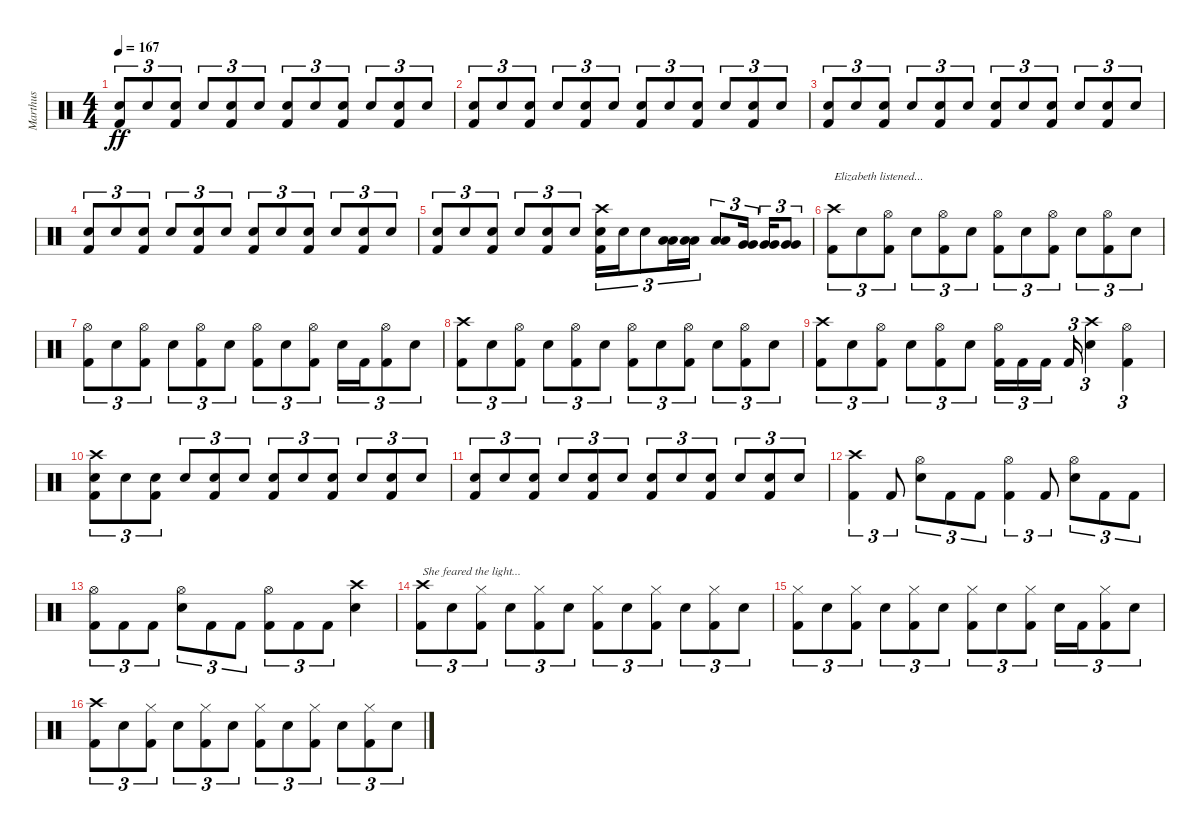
\track ("Marthus" "Marthus") {instrument percussion}
\staff {score}
\articulation defaults
\ts (4 4)
\tempo 167
\clef neutral
\ks c
("Electric Snare (hit)" "Kick (hit) 2").8{tu (3 2) dy ff} "Electric Snare (hit)".8{tu (3 2)} ("Electric Snare (hit)" "Kick (hit) 2").8{tu (3 2)} "Electric Snare (hit)".8{tu (3 2)} ("Electric Snare (hit)" "Kick (hit) 2").8{tu (3 2)} "Electric Snare (hit)".8{tu (3 2)} ("Electric Snare (hit)" "Kick (hit) 2").8{tu (3 2)} "Electric Snare (hit)".8{tu (3 2)} ("Electric Snare (hit)" "Kick (hit) 2").8{tu (3 2)} "Electric Snare (hit)".8{tu (3 2)} ("Electric Snare (hit)" "Kick (hit) 2").8{tu (3 2)} "Electric Snare (hit)".8{tu (3 2)} |
("Electric Snare (hit)" "Kick (hit) 2").8{tu (3 2)} "Electric Snare (hit)".8{tu (3 2)} ("Electric Snare (hit)" "Kick (hit) 2").8{tu (3 2)} "Electric Snare (hit)".8{tu (3 2)} ("Electric Snare (hit)" "Kick (hit) 2").8{tu (3 2)} "Electric Snare (hit)".8{tu (3 2)} ("Electric Snare (hit)" "Kick (hit) 2").8{tu (3 2)} "Electric Snare (hit)".8{tu (3 2)} ("Electric Snare (hit)" "Kick (hit) 2").8{tu (3 2)} "Electric Snare (hit)".8{tu (3 2)} ("Electric Snare (hit)" "Kick (hit) 2").8{tu (3 2)} "Electric Snare (hit)".8{tu (3 2)} |
("Electric Snare (hit)" "Kick (hit) 2").8{tu (3 2)} "Electric Snare (hit)".8{tu (3 2)} ("Electric Snare (hit)" "Kick (hit) 2").8{tu (3 2)} "Electric Snare (hit)".8{tu (3 2)} ("Electric Snare (hit)" "Kick (hit) 2").8{tu (3 2)} "Electric Snare (hit)".8{tu (3 2)} ("Electric Snare (hit)" "Kick (hit) 2").8{tu (3 2)} "Electric Snare (hit)".8{tu (3 2)} ("Electric Snare (hit)" "Kick (hit) 2").8{tu (3 2)} "Electric Snare (hit)".8{tu (3 2)} ("Electric Snare (hit)" "Kick (hit) 2").8{tu (3 2)} "Electric Snare (hit)".8{tu (3 2)} |
("Electric Snare (hit)" "Kick (hit) 2").8{tu (3 2)} "Electric Snare (hit)".8{tu (3 2)} ("Electric Snare (hit)" "Kick (hit) 2").8{tu (3 2)} "Electric Snare (hit)".8{tu (3 2)} ("Electric Snare (hit)" "Kick (hit) 2").8{tu (3 2)} "Electric Snare (hit)".8{tu (3 2)} ("Electric Snare (hit)" "Kick (hit) 2").8{tu (3 2)} "Electric Snare (hit)".8{tu (3 2)} ("Electric Snare (hit)" "Kick (hit) 2").8{tu (3 2)} "Electric Snare (hit)".8{tu (3 2)} ("Electric Snare (hit)" "Kick (hit) 2").8{tu (3 2)} "Electric Snare (hit)".8{tu (3 2)} |
("Electric Snare (hit)" "Kick (hit) 2").8{tu (3 2)} "Electric Snare (hit)".8{tu (3 2)} ("Electric Snare (hit)" "Kick (hit) 2").8{tu (3 2)} "Electric Snare (hit)".8{tu (3 2)} ("Electric Snare (hit)" "Kick (hit) 2").8{tu (3 2)} "Electric Snare (hit)".8{tu (3 2)} ("Crash high (hit)" "Electric Snare (hit)" "Kick (hit) 2").16{tu (3 2)} "Electric Snare (hit)".16{tu (3 2)} "Electric Snare (hit)".8{tu (3 2)} ("Low Tom (hit)" "Low Tom (hit)").16{tu (3 2)} ("Low Tom (hit)" "Low Tom (hit)").16{tu (3 2)} ("Low Tom (hit)" "Low Tom (hit)").8{tu (3 2)} ("Very Low Tom (hit)" "Very Low Tom (hit)").16{tu (3 2) beam splitsecondary} ("Very Low Tom (hit)" "Very Low Tom (hit)").16{tu (3 2)} ("Very Low Tom (hit)" "Very Low Tom (hit)").8{tu (3 2)} |
("Crash high (hit)" "Kick (hit) 2").8{tu (3 2) txt "Elizabeth listened..."} "Electric Snare (hit)".8{tu (3 2)} ("Hi-Hat (open)" "Kick (hit) 2").8{tu (3 2)} "Electric Snare (hit)".8{tu (3 2)} ("Hi-Hat (open)" "Kick (hit) 2").8{tu (3 2)} "Electric Snare (hit)".8{tu (3 2)} ("Hi-Hat (open)" "Kick (hit) 2").8{tu (3 2)} "Electric Snare (hit)".8{tu (3 2)} ("Hi-Hat (open)" "Kick (hit) 2").8{tu (3 2)} "Electric Snare (hit)".8{tu (3 2)} ("Hi-Hat (open)" "Kick (hit) 2").8{tu (3 2)} "Electric Snare (hit)".8{tu (3 2)} |
("Hi-Hat (open)" "Kick (hit) 2").8{tu (3 2)} "Electric Snare (hit)".8{tu (3 2)} ("Hi-Hat (open)" "Kick (hit) 2").8{tu (3 2)} "Electric Snare (hit)".8{tu (3 2)} ("Hi-Hat (open)" "Kick (hit) 2").8{tu (3 2)} "Electric Snare (hit)".8{tu (3 2)} ("Hi-Hat (open)" "Kick (hit) 2").8{tu (3 2)} "Electric Snare (hit)".8{tu (3 2)} ("Hi-Hat (open)" "Kick (hit) 2").8{tu (3 2)} "Electric Snare (hit)".16{tu (3 2)} "Kick (hit) 2".16{tu (3 2)} ("Hi-Hat (open)" "Kick (hit) 2").8{tu (3 2)} "Electric Snare (hit)".8{tu (3 2)} |
("Crash high (hit)" "Kick (hit) 2").8{tu (3 2)} "Electric Snare (hit)".8{tu (3 2)} ("Hi-Hat (open)" "Kick (hit) 2").8{tu (3 2)} "Electric Snare (hit)".8{tu (3 2)} ("Hi-Hat (open)" "Kick (hit) 2").8{tu (3 2)} "Electric Snare (hit)".8{tu (3 2)} ("Hi-Hat (open)" "Kick (hit) 2").8{tu (3 2)} "Electric Snare (hit)".8{tu (3 2)} ("Hi-Hat (open)" "Kick (hit) 2").8{tu (3 2)} "Electric Snare (hit)".8{tu (3 2)} ("Hi-Hat (open)" "Kick (hit) 2").8{tu (3 2)} "Electric Snare (hit)".8{tu (3 2)} |
("Crash high (hit)" "Kick (hit) 2").8{tu (3 2)} "Electric Snare (hit)".8{tu (3 2)} ("Hi-Hat (open)" "Kick (hit) 2").8{tu (3 2)} "Electric Snare (hit)".8{tu (3 2)} ("Hi-Hat (open)" "Kick (hit) 2").8{tu (3 2)} "Electric Snare (hit)".8{tu (3 2)} ("Hi-Hat (open)" "Kick (hit) 2").16{tu (3 2)} "Kick (hit) 2".16{tu (3 2)} "Kick (hit) 2".16{tu (3 2) beam splitsecondary} "Kick (hit) 2".16{tu (3 2)} ("Crash high (hit)" "Electric Snare (hit)").4{tu (3 2)} ("Hi-Hat (open)" "Kick (hit) 2").4{tu (3 2)} |
("Crash high (hit)" "Electric Snare (hit)" "Kick (hit) 2").8{tu (3 2)} "Electric Snare (hit)".8{tu (3 2)} ("Electric Snare (hit)" "Kick (hit) 2").8{tu (3 2)} "Electric Snare (hit)".8{tu (3 2)} ("Electric Snare (hit)" "Kick (hit) 2").8{tu (3 2)} "Electric Snare (hit)".8{tu (3 2)} ("Electric Snare (hit)" "Kick (hit) 2").8{tu (3 2)} "Electric Snare (hit)".8{tu (3 2)} ("Electric Snare (hit)" "Kick (hit) 2").8{tu (3 2)} "Electric Snare (hit)".8{tu (3 2)} ("Electric Snare (hit)" "Kick (hit) 2").8{tu (3 2)} "Electric Snare (hit)".8{tu (3 2)} |
("Electric Snare (hit)" "Kick (hit) 2").8{tu (3 2)} "Electric Snare (hit)".8{tu (3 2)} ("Electric Snare (hit)" "Kick (hit) 2").8{tu (3 2)} "Electric Snare (hit)".8{tu (3 2)} ("Electric Snare (hit)" "Kick (hit) 2").8{tu (3 2)} "Electric Snare (hit)".8{tu (3 2)} ("Electric Snare (hit)" "Kick (hit) 2").8{tu (3 2)} "Electric Snare (hit)".8{tu (3 2)} ("Electric Snare (hit)" "Kick (hit) 2").8{tu (3 2)} "Electric Snare (hit)".8{tu (3 2)} ("Electric Snare (hit)" "Kick (hit) 2").8{tu (3 2)} "Electric Snare (hit)".8{tu (3 2)} |
("Crash high (hit)" "Kick (hit) 2").4{tu (3 2)} "Kick (hit) 2".8{tu (3 2)} ("Hi-Hat (open)" "Electric Snare (hit)").8{tu (3 2)} "Kick (hit) 2".8{tu (3 2)} "Kick (hit) 2".8{tu (3 2)} ("Hi-Hat (open)" "Kick (hit) 2").4{tu (3 2)} "Kick (hit) 2".8{tu (3 2)} ("Hi-Hat (open)" "Electric Snare (hit)").8{tu (3 2)} "Kick (hit) 2".8{tu (3 2)} "Kick (hit) 2".8{tu (3 2)} |
("Hi-Hat (open)" "Kick (hit) 2").8{tu (3 2)} "Kick (hit) 2".8{tu (3 2)} "Kick (hit) 2".8{tu (3 2)} ("Hi-Hat (open)" "Electric Snare (hit)").8{tu (3 2)} "Kick (hit) 2".8{tu (3 2)} "Kick (hit) 2".8{tu (3 2)} ("Hi-Hat (open)" "Kick (hit) 2").8{tu (3 2)} "Kick (hit) 2".8{tu (3 2)} "Kick (hit) 2".8{tu (3 2)} ("Crash high (hit)" "Electric Snare (hit)").4 |
("Crash high (hit)" "Kick (hit) 2").8{tu (3 2) txt "She feared the light..."} "Electric Snare (hit)".8{tu (3 2)} ("Hi-Hat (closed)" "Kick (hit) 2").8{tu (3 2)} "Electric Snare (hit)".8{tu (3 2)} ("Hi-Hat (closed)" "Kick (hit) 2").8{tu (3 2)} "Electric Snare (hit)".8{tu (3 2)} ("Hi-Hat (closed)" "Kick (hit) 2").8{tu (3 2)} "Electric Snare (hit)".8{tu (3 2)} ("Hi-Hat (closed)" "Kick (hit) 2").8{tu (3 2)} "Electric Snare (hit)".8{tu (3 2)} ("Hi-Hat (closed)" "Kick (hit) 2").8{tu (3 2)} "Electric Snare (hit)".8{tu (3 2)} |
("Hi-Hat (closed)" "Kick (hit) 2").8{tu (3 2)} "Electric Snare (hit)".8{tu (3 2)} ("Hi-Hat (closed)" "Kick (hit) 2").8{tu (3 2)} "Electric Snare (hit)".8{tu (3 2)} ("Hi-Hat (closed)" "Kick (hit) 2").8{tu (3 2)} "Electric Snare (hit)".8{tu (3 2)} ("Hi-Hat (closed)" "Kick (hit) 2").8{tu (3 2)} "Electric Snare (hit)".8{tu (3 2)} ("Hi-Hat (closed)" "Kick (hit) 2").8{tu (3 2)} "Electric Snare (hit)".16{tu (3 2)} "Kick (hit) 2".16{tu (3 2)} ("Hi-Hat (closed)" "Kick (hit) 2").8{tu (3 2)} "Electric Snare (hit)".8{tu (3 2)} |
("Crash high (hit)" "Kick (hit) 2").8{tu (3 2)} "Electric Snare (hit)".8{tu (3 2)} ("Hi-Hat (closed)" "Kick (hit) 2").8{tu (3 2)} "Electric Snare (hit)".8{tu (3 2)} ("Hi-Hat (closed)" "Kick (hit) 2").8{tu (3 2)} "Electric Snare (hit)".8{tu (3 2)} ("Hi-Hat (closed)" "Kick (hit) 2").8{tu (3 2)} "Electric Snare (hit)".8{tu (3 2)} ("Hi-Hat (closed)" "Kick (hit) 2").8{tu (3 2)} "Electric Snare (hit)".8{tu (3 2)} ("Hi-Hat (closed)" "Kick (hit) 2").8{tu (3 2)} "Electric Snare (hit)".8{tu (3 2)}
